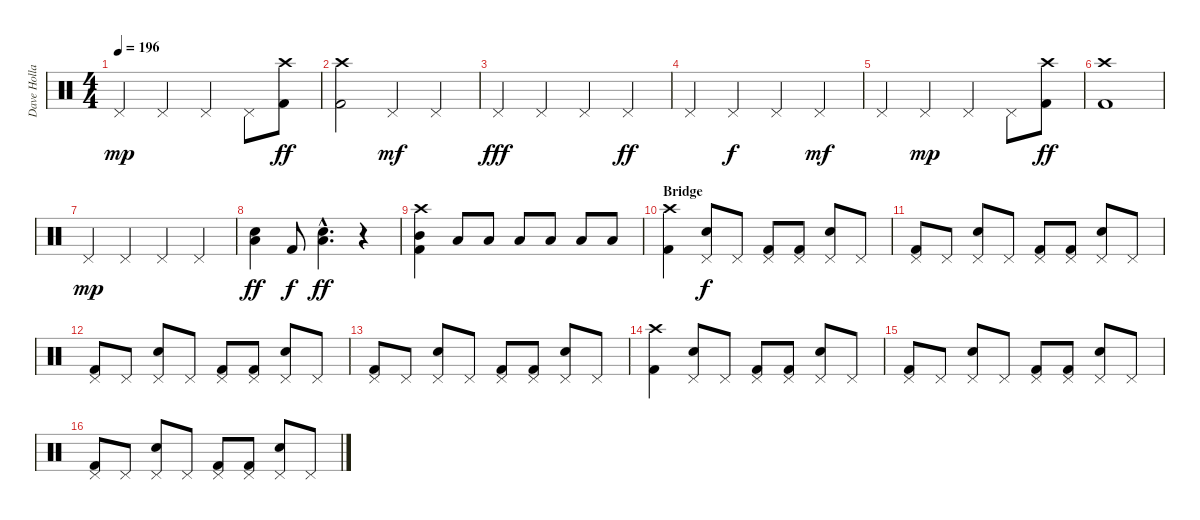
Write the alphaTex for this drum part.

\track ("Dave Holland" "Dave Holla") {instrument percussion}
\staff {score}
\articulation defaults
\ts (4 4)
\tempo 196
\clef neutral
\ks c "Pedal Hi-Hat (hit)".4{dy mp} "Pedal Hi-Hat (hit)".4 "Pedal Hi-Hat (hit)".4 "Pedal Hi-Hat (hit)".8
("Crash high (hit)" "Kick (hit) 2").8{dy ff} |
("Crash high (hit)" "Kick (hit) 2").2 "Pedal Hi-Hat (hit)".4{dy mf} "Pedal Hi-Hat (hit)".4 |
"Pedal Hi-Hat (hit)".4{dy fff} "Pedal Hi-Hat (hit)".4 "Pedal Hi-Hat (hit)".4 "Pedal Hi-Hat (hit)".4{dy ff} |
"Pedal Hi-Hat (hit)".4 "Pedal Hi-Hat (hit)".4{dy f} "Pedal Hi-Hat (hit)".4 "Pedal Hi-Hat (hit)".4{dy mf} |
"Pedal Hi-Hat (hit)".4 "Pedal Hi-Hat (hit)".4{dy mp} "Pedal Hi-Hat (hit)".4 "Pedal Hi-Hat (hit)".8 ("Crash high (hit)" "Kick (hit) 2").8{dy ff} |
("Crash high (hit)" "Kick (hit) 2").1 |
"Pedal Hi-Hat (hit)".4{dy mp} "Pedal Hi-Hat (hit)".4 "Pedal Hi-Hat (hit)".4 "Pedal Hi-Hat (hit)".4 |
("Low Tom (hit)" "Electric Snare (hit)").4{dy ff} "Kick (hit) 2".8{dy f} ("Low Tom (hit)"{hac} "Electric Snare (hit)"{hac}).4{d dy ff} r.4 |
("Crash high (hit)" "Mid Tom (hit)" "Kick (hit) 2").4 "Low Tom (hit)".8 "Low Tom (hit)".8 "Low Tom (hit)".8 "Low Floor Tom (hit)".8 "Low Floor Tom (hit)".8 "Low Floor Tom (hit)".8 |
\section ("" "Bridge")
("Crash high (hit)" "Kick (hit) 2").4 ("Pedal Hi-Hat (hit)" "Snare (hit) 2").8{dy f} "Pedal Hi-Hat (hit)".8 ("Pedal Hi-Hat (hit)" "Kick (hit) 2").8 ("Pedal Hi-Hat (hit)" "Kick (hit) 2").8 ("Pedal Hi-Hat (hit)" "Snare (hit) 2").8 "Pedal Hi-Hat (hit)".8 |
("Pedal Hi-Hat (hit)" "Kick (hit) 2").8 "Pedal Hi-Hat (hit)".8 ("Pedal Hi-Hat (hit)" "Snare (hit) 2").8 "Pedal Hi-Hat (hit)".8 ("Pedal Hi-Hat (hit)" "Kick (hit) 2").8 ("Pedal Hi-Hat (hit)" "Kick (hit) 2").8 ("Pedal Hi-Hat (hit)" "Snare (hit) 2").8 "Pedal Hi-Hat (hit)".8 |
("Pedal Hi-Hat (hit)" "Kick (hit) 2").8 "Pedal Hi-Hat (hit)".8 ("Pedal Hi-Hat (hit)" "Snare (hit) 2").8 "Pedal Hi-Hat (hit)".8 ("Pedal Hi-Hat (hit)" "Kick (hit) 2").8 ("Pedal Hi-Hat (hit)" "Kick (hit) 2").8 ("Pedal Hi-Hat (hit)" "Snare (hit) 2").8 "Pedal Hi-Hat (hit)".8 |
("Pedal Hi-Hat (hit)" "Kick (hit) 2").8 "Pedal Hi-Hat (hit)".8 ("Pedal Hi-Hat (hit)" "Snare (hit) 2").8 "Pedal Hi-Hat (hit)".8 ("Pedal Hi-Hat (hit)" "Kick (hit) 2").8 ("Pedal Hi-Hat (hit)" "Kick (hit) 2").8 ("Pedal Hi-Hat (hit)" "Snare (hit) 2").8 "Pedal Hi-Hat (hit)".8 |
("Crash high (hit)" "Kick (hit) 2").4 ("Pedal Hi-Hat (hit)" "Snare (hit) 2").8 "Pedal Hi-Hat (hit)".8 ("Pedal Hi-Hat (hit)" "Kick (hit) 2").8 ("Pedal Hi-Hat (hit)" "Kick (hit) 2").8 ("Pedal Hi-Hat (hit)" "Snare (hit) 2").8 "Pedal Hi-Hat (hit)".8 |
("Pedal Hi-Hat (hit)" "Kick (hit) 2").8 "Pedal Hi-Hat (hit)".8 ("Pedal Hi-Hat (hit)" "Snare (hit) 2").8 "Pedal Hi-Hat (hit)".8 ("Pedal Hi-Hat (hit)" "Kick (hit) 2").8 ("Pedal Hi-Hat (hit)" "Kick (hit) 2").8 ("Pedal Hi-Hat (hit)" "Snare (hit) 2").8 "Pedal Hi-Hat (hit)".8 |
("Pedal Hi-Hat (hit)" "Kick (hit) 2").8 "Pedal Hi-Hat (hit)".8 ("Pedal Hi-Hat (hit)" "Snare (hit) 2").8 "Pedal Hi-Hat (hit)".8 ("Pedal Hi-Hat (hit)" "Kick (hit) 2").8 ("Pedal Hi-Hat (hit)" "Kick (hit) 2").8 ("Pedal Hi-Hat (hit)" "Snare (hit) 2").8 "Pedal Hi-Hat (hit)".8
